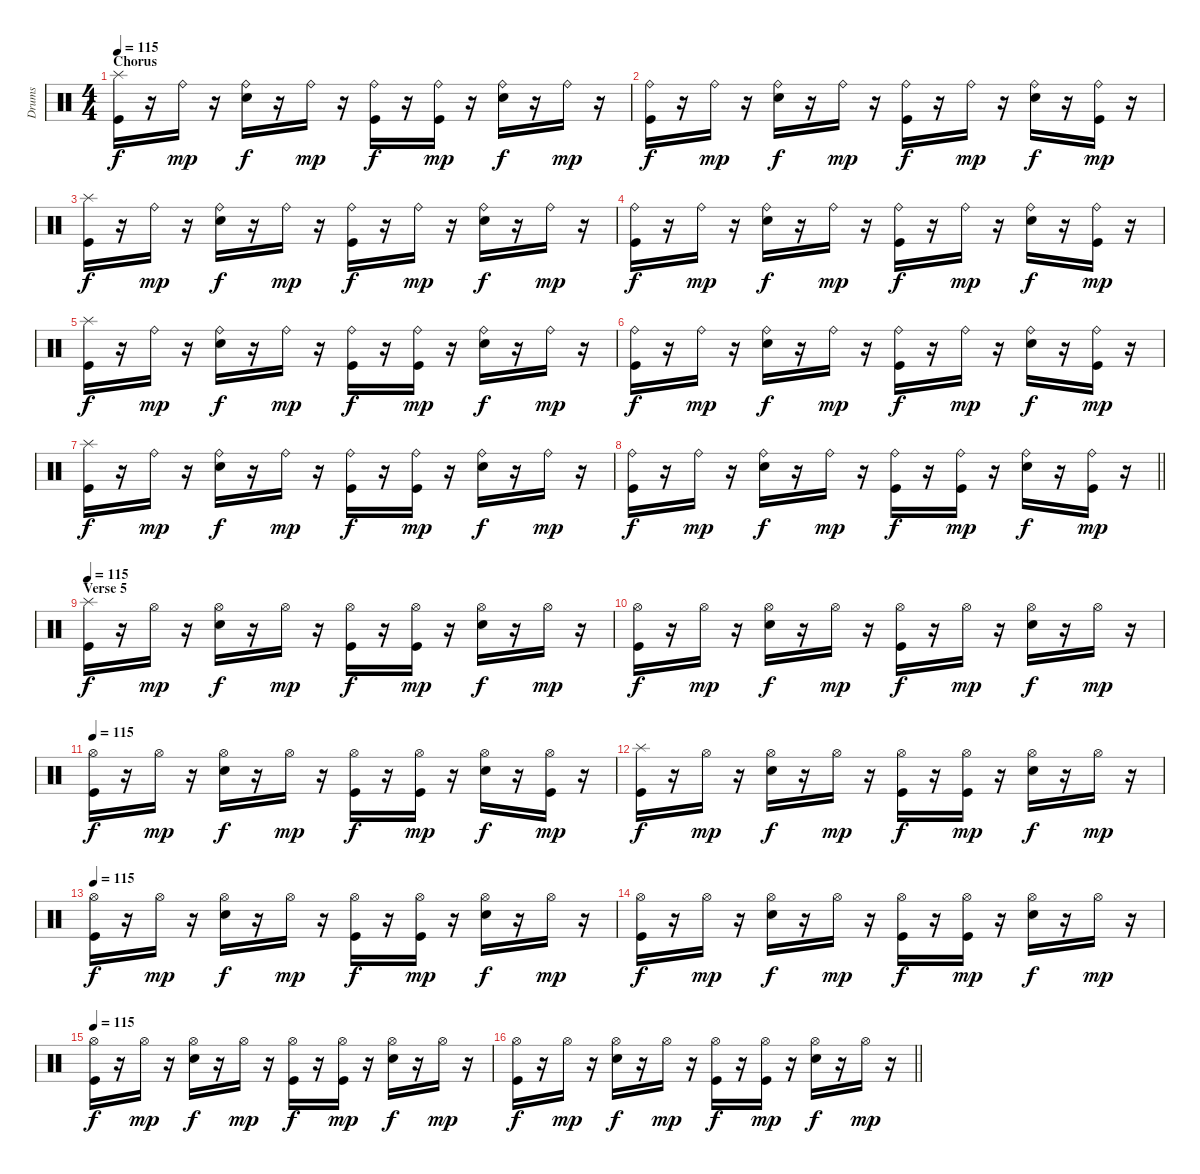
\track ("Drums" "Drums") {instrument percussion}
\staff {score}
\articulation defaults
\ts (4 4)
\section ("" "Chorus")
\tempo 115
\clef neutral
\ks c
("Splash (hit)" "Kick (hit)").16{dy f} r.16 "Ride (bell)".16{dy mp} r.16 ("Ride (bell)" "Electric Snare (hit)").16{dy f} r.16 "Ride (bell)".16{dy mp} r.16 ("Ride (bell)" "Kick (hit)").16{dy f} r.16 ("Ride (bell)" "Kick (hit)").16{dy mp} r.16 ("Ride (bell)" "Electric Snare (hit)").16{dy f} r.16 "Ride (bell)".16{dy mp} r.16 |
("Ride (bell)" "Kick (hit)").16{dy f} r.16 "Ride (bell)".16{dy mp} r.16 ("Ride (bell)" "Electric Snare (hit)").16{dy f} r.16 "Ride (bell)".16{dy mp} r.16 ("Ride (bell)" "Kick (hit)").16{dy f} r.16 "Ride (bell)".16{dy mp} r.16 ("Ride (bell)" "Electric Snare (hit)").16{dy f} r.16 ("Ride (bell)" "Kick (hit)").16{dy mp} r.16 |
("Splash (hit)" "Kick (hit)").16{dy f} r.16 "Ride (bell)".16{dy mp} r.16 ("Ride (bell)" "Electric Snare (hit)").16{dy f} r.16 "Ride (bell)".16{dy mp} r.16 ("Ride (bell)" "Kick (hit)").16{dy f} r.16 "Ride (bell)".16{dy mp} r.16 ("Ride (bell)" "Electric Snare (hit)").16{dy f} r.16 "Ride (bell)".16{dy mp} r.16 |
("Ride (bell)" "Kick (hit)").16{dy f} r.16 "Ride (bell)".16{dy mp} r.16 ("Ride (bell)" "Electric Snare (hit)").16{dy f} r.16 "Ride (bell)".16{dy mp} r.16 ("Ride (bell)" "Kick (hit)").16{dy f} r.16 "Ride (bell)".16{dy mp} r.16 ("Ride (bell)" "Electric Snare (hit)").16{dy f} r.16 ("Ride (bell)" "Kick (hit)").16{dy mp} r.16 |
("Splash (hit)" "Kick (hit)").16{dy f} r.16 "Ride (bell)".16{dy mp} r.16 ("Ride (bell)" "Electric Snare (hit)").16{dy f} r.16 "Ride (bell)".16{dy mp} r.16 ("Ride (bell)" "Kick (hit)").16{dy f} r.16 ("Ride (bell)" "Kick (hit)").16{dy mp} r.16 ("Ride (bell)" "Electric Snare (hit)").16{dy f} r.16 "Ride (bell)".16{dy mp} r.16 |
("Ride (bell)" "Kick (hit)").16{dy f} r.16 "Ride (bell)".16{dy mp} r.16 ("Ride (bell)" "Electric Snare (hit)").16{dy f} r.16 "Ride (bell)".16{dy mp} r.16 ("Ride (bell)" "Kick (hit)").16{dy f} r.16 "Ride (bell)".16{dy mp} r.16 ("Ride (bell)" "Electric Snare (hit)").16{dy f} r.16 ("Ride (bell)" "Kick (hit)").16{dy mp} r.16 |
("Splash (hit)" "Kick (hit)").16{dy f} r.16 "Ride (bell)".16{dy mp} r.16 ("Ride (bell)" "Electric Snare (hit)").16{dy f} r.16 "Ride (bell)".16{dy mp} r.16 ("Ride (bell)" "Kick (hit)").16{dy f} r.16 ("Ride (bell)" "Kick (hit)").16{dy mp} r.16 ("Ride (bell)" "Electric Snare (hit)").16{dy f} r.16 "Ride (bell)".16{dy mp} r.16 |
\barLineRight lightlight
("Ride (bell)" "Kick (hit)").16{dy f} r.16 "Ride (bell)".16{dy mp} r.16 ("Ride (bell)" "Electric Snare (hit)").16{dy f} r.16 "Ride (bell)".16{dy mp} r.16 ("Ride (bell)" "Kick (hit)").16{dy f} r.16 ("Ride (bell)" "Kick (hit)").16{dy mp} r.16 ("Ride (bell)" "Electric Snare (hit)").16{dy f} r.16 ("Ride (bell)" "Kick (hit)").16{dy mp} r.16 |
\section ("" "Verse 5")
\tempo 115
("Splash (hit)" "Kick (hit)").16{dy f} r.16 "Hi-Hat (open)".16{dy mp} r.16 ("Hi-Hat (open)" "Electric Snare (hit)").16{dy f} r.16 "Hi-Hat (open)".16{dy mp} r.16 ("Hi-Hat (open)" "Kick (hit)").16{dy f} r.16 ("Kick (hit)" "Hi-Hat (open)").16{dy mp} r.16 ("Hi-Hat (open)" "Electric Snare (hit)").16{dy f} r.16 "Hi-Hat (open)".16{dy mp} r.16 |
("Hi-Hat (open)" "Kick (hit)").16{dy f} r.16 "Hi-Hat (open)".16{dy mp} r.16 ("Hi-Hat (open)" "Electric Snare (hit)").16{dy f} r.16 "Hi-Hat (open)".16{dy mp} r.16 ("Hi-Hat (open)" "Kick (hit)").16{dy f} r.16 "Hi-Hat (open)".16{dy mp} r.16 ("Hi-Hat (open)" "Electric Snare (hit)").16{dy f} r.16 "Hi-Hat (open)".16{dy mp} r.16 |
\tempo 115
("Hi-Hat (open)" "Kick (hit)").16{dy f} r.16 "Hi-Hat (open)".16{dy mp} r.16 ("Hi-Hat (open)" "Electric Snare (hit)").16{dy f} r.16 "Hi-Hat (open)".16{dy mp} r.16 ("Hi-Hat (open)" "Kick (hit)").16{dy f} r.16 ("Kick (hit)" "Hi-Hat (open)").16{dy mp} r.16 ("Hi-Hat (open)" "Electric Snare (hit)").16{dy f} r.16 ("Kick (hit)" "Hi-Hat (open)").16{dy mp} r.16 |
("Splash (hit)" "Kick (hit)").16{dy f} r.16 "Hi-Hat (open)".16{dy mp} r.16 ("Hi-Hat (open)" "Electric Snare (hit)").16{dy f} r.16 "Hi-Hat (open)".16{dy mp} r.16 ("Hi-Hat (open)" "Kick (hit)").16{dy f} r.16 ("Kick (hit)" "Hi-Hat (open)").16{dy mp} r.16 ("Hi-Hat (open)" "Electric Snare (hit)").16{dy f} r.16 "Hi-Hat (open)".16{dy mp} r.16 |
\tempo 115
("Hi-Hat (open)" "Kick (hit)").16{dy f} r.16 "Hi-Hat (open)".16{dy mp} r.16 ("Hi-Hat (open)" "Electric Snare (hit)").16{dy f} r.16 "Hi-Hat (open)".16{dy mp} r.16 ("Hi-Hat (open)" "Kick (hit)").16{dy f} r.16 ("Kick (hit)" "Hi-Hat (open)").16{dy mp} r.16 ("Hi-Hat (open)" "Electric Snare (hit)").16{dy f} r.16 "Hi-Hat (open)".16{dy mp} r.16 |
("Hi-Hat (open)" "Kick (hit)").16{dy f} r.16 "Hi-Hat (open)".16{dy mp} r.16 ("Hi-Hat (open)" "Electric Snare (hit)").16{dy f} r.16 "Hi-Hat (open)".16{dy mp} r.16 ("Hi-Hat (open)" "Kick (hit)").16{dy f} r.16 ("Kick (hit)" "Hi-Hat (open)").16{dy mp} r.16 ("Hi-Hat (open)" "Electric Snare (hit)").16{dy f} r.16 "Hi-Hat (open)".16{dy mp} r.16 |
\tempo 115
("Hi-Hat (open)" "Kick (hit)").16{dy f} r.16 "Hi-Hat (open)".16{dy mp} r.16 ("Hi-Hat (open)" "Electric Snare (hit)").16{dy f} r.16 "Hi-Hat (open)".16{dy mp} r.16 ("Hi-Hat (open)" "Kick (hit)").16{dy f} r.16 ("Kick (hit)" "Hi-Hat (open)").16{dy mp} r.16 ("Hi-Hat (open)" "Electric Snare (hit)").16{dy f} r.16 "Hi-Hat (open)".16{dy mp} r.16 |
\barLineRight lightlight
("Hi-Hat (open)" "Kick (hit)").16{dy f} r.16 "Hi-Hat (open)".16{dy mp} r.16 ("Hi-Hat (open)" "Electric Snare (hit)").16{dy f} r.16 "Hi-Hat (open)".16{dy mp} r.16 ("Hi-Hat (open)" "Kick (hit)").16{dy f} r.16 ("Kick (hit)" "Hi-Hat (open)").16{dy mp} r.16 ("Hi-Hat (open)" "Electric Snare (hit)").16{dy f} r.16 "Hi-Hat (open)".16{dy mp} r.16
